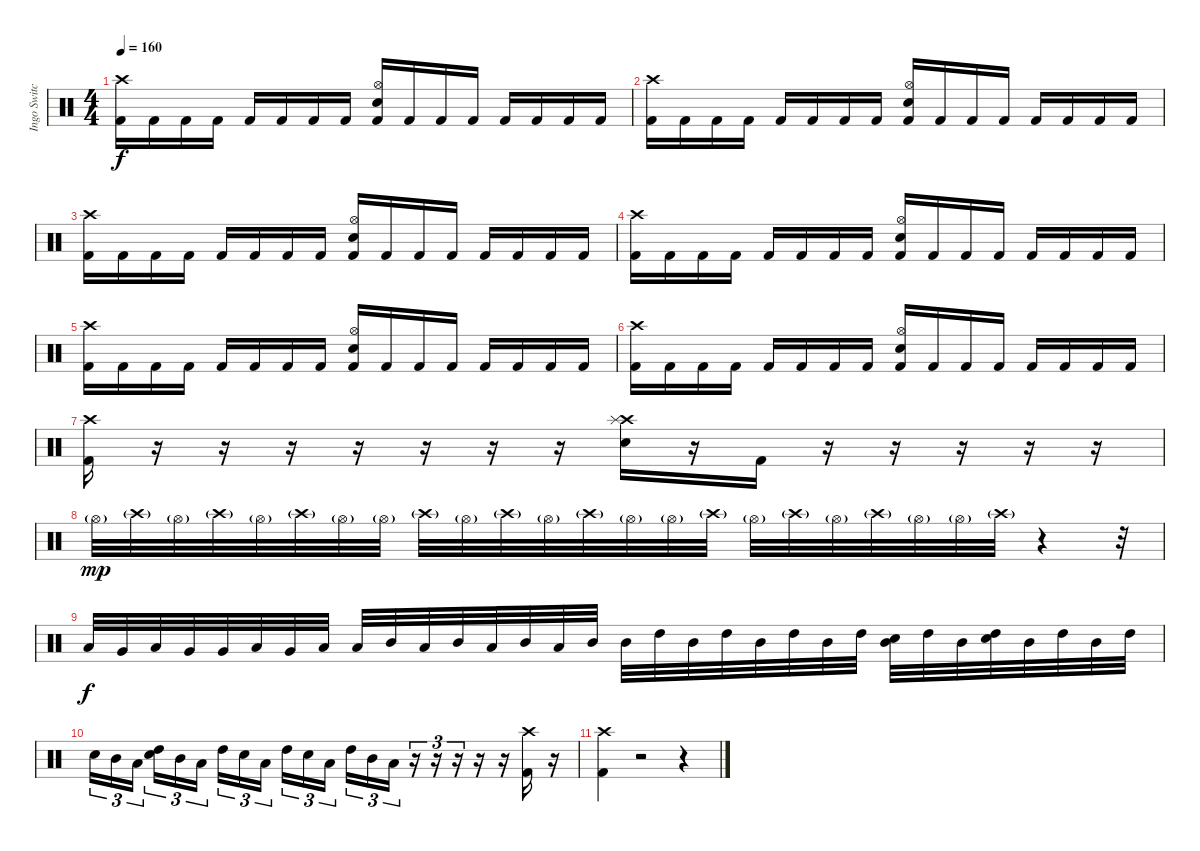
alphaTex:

\track ("Ingo Switchenberg" "Ingo Switc") {instrument percussion}
\staff {score}
\articulation defaults
\ts (4 4)
\tempo 160
\clef neutral
\ks c
("Crash high (hit)" "Kick (hit) 2").16{dy f} "Kick (hit) 2".16 "Kick (hit) 2".16 "Kick (hit) 2".16 "Kick (hit) 2".16 "Kick (hit) 2".16 "Kick (hit) 2".16 "Kick (hit) 2".16 ("Hi-Hat (open)" "Snare (hit) 2" "Kick (hit) 2").16 "Kick (hit) 2".16 "Kick (hit) 2".16 "Kick (hit) 2".16 "Kick (hit) 2".16 "Kick (hit) 2".16 "Kick (hit) 2".16 "Kick (hit) 2".16 |
("Crash high (hit)" "Kick (hit) 2").16 "Kick (hit) 2".16 "Kick (hit) 2".16 "Kick (hit) 2".16 "Kick (hit) 2".16 "Kick (hit) 2".16 "Kick (hit) 2".16 "Kick (hit) 2".16 ("Hi-Hat (open)" "Snare (hit) 2" "Kick (hit) 2").16 "Kick (hit) 2".16 "Kick (hit) 2".16 "Kick (hit) 2".16 "Kick (hit) 2".16 "Kick (hit) 2".16 "Kick (hit) 2".16 "Kick (hit) 2".16 |
("Crash high (hit)" "Kick (hit) 2").16 "Kick (hit) 2".16 "Kick (hit) 2".16 "Kick (hit) 2".16 "Kick (hit) 2".16 "Kick (hit) 2".16 "Kick (hit) 2".16 "Kick (hit) 2".16 ("Hi-Hat (open)" "Snare (hit) 2" "Kick (hit) 2").16 "Kick (hit) 2".16 "Kick (hit) 2".16 "Kick (hit) 2".16 "Kick (hit) 2".16 "Kick (hit) 2".16 "Kick (hit) 2".16 "Kick (hit) 2".16 |
("Crash high (hit)" "Kick (hit) 2").16 "Kick (hit) 2".16 "Kick (hit) 2".16 "Kick (hit) 2".16 "Kick (hit) 2".16 "Kick (hit) 2".16 "Kick (hit) 2".16 "Kick (hit) 2".16 ("Hi-Hat (open)" "Snare (hit) 2" "Kick (hit) 2").16 "Kick (hit) 2".16 "Kick (hit) 2".16 "Kick (hit) 2".16 "Kick (hit) 2".16 "Kick (hit) 2".16 "Kick (hit) 2".16 "Kick (hit) 2".16 |
("Crash high (hit)" "Kick (hit) 2").16 "Kick (hit) 2".16 "Kick (hit) 2".16 "Kick (hit) 2".16 "Kick (hit) 2".16 "Kick (hit) 2".16 "Kick (hit) 2".16 "Kick (hit) 2".16 ("Hi-Hat (open)" "Snare (hit) 2" "Kick (hit) 2").16 "Kick (hit) 2".16 "Kick (hit) 2".16 "Kick (hit) 2".16 "Kick (hit) 2".16 "Kick (hit) 2".16 "Kick (hit) 2".16 "Kick (hit) 2".16 |
("Crash high (hit)" "Kick (hit) 2").16 "Kick (hit) 2".16 "Kick (hit) 2".16 "Kick (hit) 2".16 "Kick (hit) 2".16 "Kick (hit) 2".16 "Kick (hit) 2".16 "Kick (hit) 2".16 ("Hi-Hat (open)" "Snare (hit) 2" "Kick (hit) 2").16 "Kick (hit) 2".16 "Kick (hit) 2".16 "Kick (hit) 2".16 "Kick (hit) 2".16 "Kick (hit) 2".16 "Kick (hit) 2".16 "Kick (hit) 2".16 |
("Kick (hit) 2" "Crash high (hit)").16 r.16 r.16 r.16 r.16 r.16 r.16 r.16 ("Crash high (hit)" "Snare (hit) 2" "Splash (hit)").16 r.16 "Kick (hit) 2".16 r.16 r.16 r.16 r.16 r.16 |
"Hi-Hat (open)"{g}.32{dy mp} "Crash high (hit)"{g}.32 "Hi-Hat (open)"{g}.32 "Crash high (hit)"{g}.32 "Hi-Hat (open)"{g}.32 "Crash high (hit)"{g}.32 "Hi-Hat (open)"{g}.32 "Hi-Hat (open)"{g}.32 "Crash high (hit)"{g}.32 "Hi-Hat (open)"{g}.32 "Crash high (hit)"{g}.32 "Hi-Hat (open)"{g}.32 "Crash high (hit)"{g}.32 "Hi-Hat (open)"{g}.32 "Hi-Hat (open)"{g}.32 "Crash high (hit)"{g}.32 "Hi-Hat (open)"{g}.32 "Crash high (hit)"{g}.32 "Hi-Hat (open)"{g}.32 "Crash high (hit)"{g}.32 "Hi-Hat (open)"{g}.32 "Hi-Hat (open)"{g}.32 "Crash high (hit)"{g}.32 r.4 r.32 |
"Low Floor Tom (hit)".32{dy f} "Very Low Tom (hit)".32 "Low Floor Tom (hit)".32 "Very Low Tom (hit)".32 "Very Low Tom (hit)".32 "Low Tom (hit)".32 "Very Low Tom (hit)".32 "Low Tom (hit)".32 "Low Tom (hit)".32 "Mid Tom (hit)".32 "Low Tom (hit)".32 "Mid Tom (hit)".32 "Low Tom (hit)".32 "Mid Tom (hit)".32 "Low Tom (hit)".32 "Mid Tom (hit)".32 "Mid Tom (hit)".32 "High Tom (hit)".32 "Mid Tom (hit)".32 "High Tom (hit)".32 "Mid Tom (hit)".32 "High Tom (hit)".32 "Mid Tom (hit)".32 "High Tom (hit)".32 ("Snare (hit) 2" "Mid Tom (hit)").32 "High Tom (hit)".32 "Mid Tom (hit)".32 ("Snare (hit) 2" "High Tom (hit)").32 "Mid Tom (hit)".32 "High Tom (hit)".32 "Mid Tom (hit)".32 "High Tom (hit)".32 |
"Snare (hit) 2".16{tu (3 2)} "Mid Tom (hit)".16{tu (3 2)} "Low Tom (hit)".16{tu (3 2)} ("Snare (hit) 2" "High Tom (hit)").16{tu (3 2)} "Mid Tom (hit)".16{tu (3 2)} "Low Tom (hit)".16{tu (3 2)} "High Tom (hit)".16{tu (3 2)} "Snare (hit) 2".16{tu (3 2)} "Low Tom (hit)".16{tu (3 2)} "High Tom (hit)".16{tu (3 2)} "Snare (hit) 2".16{tu (3 2)} "Low Tom (hit)".16{tu (3 2)} "High Tom (hit)".16{tu (3 2)} "Mid Tom (hit)".16{tu (3 2)} "Low Tom (hit)".16{tu (3 2)} r.16{tu (3 2)} r.16{tu (3 2)} r.16{tu (3 2)} r.16 r.16 ("Crash high (hit)" "Kick (hit) 2").16 r.16 |
("Kick (hit) 2" "Crash high (hit)").4 r.2 r.4
